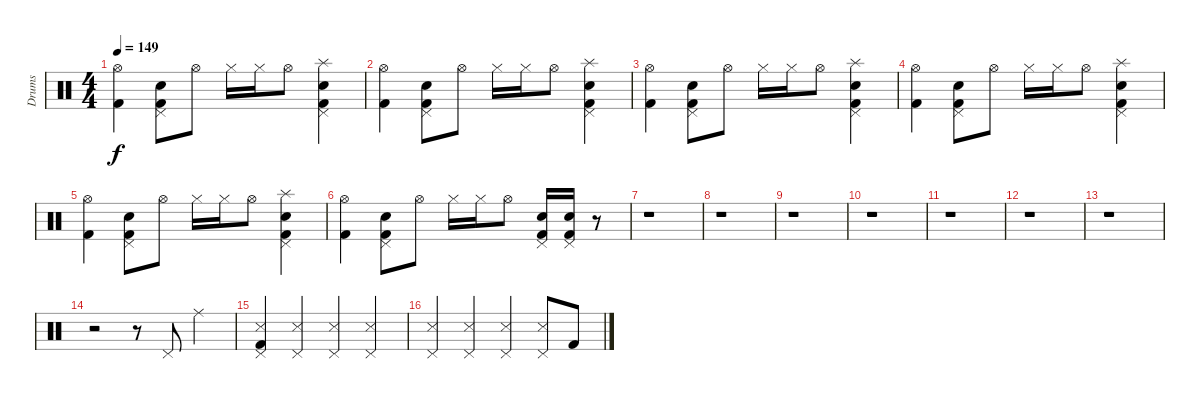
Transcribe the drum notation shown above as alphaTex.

\track ("Drums" "Drums") {instrument percussion}
\staff {score}
\articulation defaults
\ts (4 4)
\tempo 149
\clef neutral
\ks c
("Hi-Hat (open)" "Kick (hit) 2").4{dy f} ("Electric Snare (hit)" "Kick (hit) 2" "Pedal Hi-Hat (hit)").8 "Hi-Hat (open)".8 "Hi-Hat (closed)".16 "Hi-Hat (closed)".16 "Hi-Hat (open)".8 ("Splash (hit)" "Electric Snare (hit)" "Kick (hit) 2" "Pedal Hi-Hat (hit)").4 |
("Hi-Hat (open)" "Kick (hit) 2").4 ("Electric Snare (hit)" "Kick (hit) 2" "Pedal Hi-Hat (hit)").8 "Hi-Hat (open)".8 "Hi-Hat (closed)".16 "Hi-Hat (closed)".16 "Hi-Hat (open)".8 ("Splash (hit)" "Electric Snare (hit)" "Kick (hit) 2" "Pedal Hi-Hat (hit)").4 |
("Hi-Hat (open)" "Kick (hit) 2").4 ("Electric Snare (hit)" "Kick (hit) 2" "Pedal Hi-Hat (hit)").8 "Hi-Hat (open)".8 "Hi-Hat (closed)".16 "Hi-Hat (closed)".16 "Hi-Hat (open)".8 ("Splash (hit)" "Electric Snare (hit)" "Kick (hit) 2" "Pedal Hi-Hat (hit)").4 |
("Hi-Hat (open)" "Kick (hit) 2").4 ("Electric Snare (hit)" "Kick (hit) 2" "Pedal Hi-Hat (hit)").8 "Hi-Hat (open)".8 "Hi-Hat (closed)".16 "Hi-Hat (closed)".16 "Hi-Hat (open)".8 ("Splash (hit)" "Electric Snare (hit)" "Kick (hit) 2" "Pedal Hi-Hat (hit)").4 |
("Hi-Hat (open)" "Kick (hit) 2").4 ("Electric Snare (hit)" "Kick (hit) 2" "Pedal Hi-Hat (hit)").8 "Hi-Hat (open)".8 "Hi-Hat (closed)".16 "Hi-Hat (closed)".16 "Hi-Hat (open)".8 ("Splash (hit)" "Electric Snare (hit)" "Kick (hit) 2" "Pedal Hi-Hat (hit)").4 |
("Hi-Hat (open)" "Kick (hit) 2").4 ("Electric Snare (hit)" "Kick (hit) 2" "Pedal Hi-Hat (hit)").8 "Hi-Hat (open)".8 "Hi-Hat (closed)".16 "Hi-Hat (closed)".16 "Hi-Hat (open)".8 ("Electric Snare (hit)" "Kick (hit) 2" "Pedal Hi-Hat (hit)").16 ("Electric Snare (hit)" "Kick (hit) 2" "Pedal Hi-Hat (hit)").16 r.8 |
r.1 |
r.1 |
r.1 |
r.1 |
r.1 |
r.1 |
r.1 |
r.2 r.8 "Pedal Hi-Hat (hit)".8 "Ride (middle)".4 |
("Snare (side stick) 3" "Kick (hit) 2" "Pedal Hi-Hat (hit)").4 ("Snare (side stick) 3" "Pedal Hi-Hat (hit)").4 ("Snare (side stick) 3" "Pedal Hi-Hat (hit)").4 ("Snare (side stick) 3" "Pedal Hi-Hat (hit)").4 |
("Snare (side stick) 3" "Pedal Hi-Hat (hit)").4 ("Snare (side stick) 3" "Pedal Hi-Hat (hit)").4 ("Snare (side stick) 3" "Pedal Hi-Hat (hit)").4 ("Snare (side stick) 3" "Pedal Hi-Hat (hit)").8 "Kick (hit) 2".8
